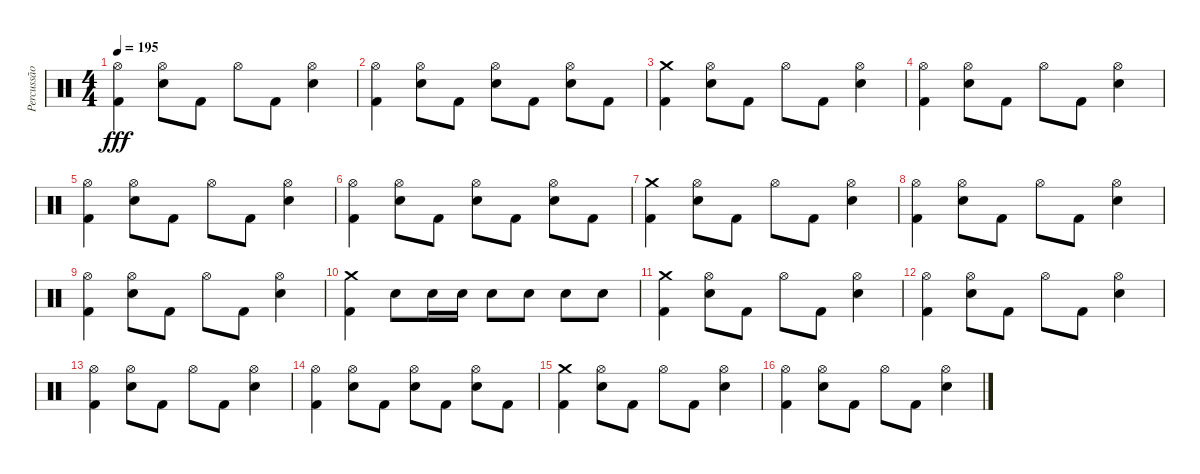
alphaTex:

\track ("Percussão" "Percussão") {instrument percussion}
\staff {score}
\articulation defaults
\ts (4 4)
\tempo 195
\clef neutral
\ks c
("Hi-Hat (open)" "Kick (hit) 2").4{dy fff} ("Hi-Hat (open)" "Electric Snare (hit)").8 "Kick (hit) 2".8 "Hi-Hat (open)".8 "Kick (hit) 2".8 ("Hi-Hat (open)" "Electric Snare (hit)").4 |
("Hi-Hat (open)" "Kick (hit) 2").4 ("Hi-Hat (open)" "Electric Snare (hit)").8 "Kick (hit) 2".8 ("Hi-Hat (open)" "Electric Snare (hit)").8 "Kick (hit) 2".8 ("Hi-Hat (open)" "Electric Snare (hit)").8 "Kick (hit) 2".8 |
("Crash medium (hit)" "Kick (hit) 2").4 ("Hi-Hat (open)" "Electric Snare (hit)").8 "Kick (hit) 2".8 "Hi-Hat (open)".8 "Kick (hit) 2".8 ("Hi-Hat (open)" "Electric Snare (hit)").4 |
("Hi-Hat (open)" "Kick (hit) 2").4 ("Hi-Hat (open)" "Electric Snare (hit)").8 "Kick (hit) 2".8 "Hi-Hat (open)".8 "Kick (hit) 2".8 ("Hi-Hat (open)" "Electric Snare (hit)").4 |
("Hi-Hat (open)" "Kick (hit) 2").4 ("Hi-Hat (open)" "Electric Snare (hit)").8 "Kick (hit) 2".8 "Hi-Hat (open)".8 "Kick (hit) 2".8 ("Hi-Hat (open)" "Electric Snare (hit)").4 |
("Hi-Hat (open)" "Kick (hit) 2").4 ("Hi-Hat (open)" "Electric Snare (hit)").8 "Kick (hit) 2".8 ("Hi-Hat (open)" "Electric Snare (hit)").8 "Kick (hit) 2".8 ("Hi-Hat (open)" "Electric Snare (hit)").8 "Kick (hit) 2".8 |
("Crash medium (hit)" "Kick (hit) 2").4 ("Hi-Hat (open)" "Electric Snare (hit)").8 "Kick (hit) 2".8 "Hi-Hat (open)".8 "Kick (hit) 2".8 ("Hi-Hat (open)" "Electric Snare (hit)").4 |
("Hi-Hat (open)" "Kick (hit) 2").4 ("Hi-Hat (open)" "Electric Snare (hit)").8 "Kick (hit) 2".8 "Hi-Hat (open)".8 "Kick (hit) 2".8 ("Hi-Hat (open)" "Electric Snare (hit)").4 |
("Hi-Hat (open)" "Kick (hit) 2").4 ("Hi-Hat (open)" "Electric Snare (hit)").8 "Kick (hit) 2".8 "Hi-Hat (open)".8 "Kick (hit) 2".8 ("Hi-Hat (open)" "Electric Snare (hit)").4 |
("Crash medium (hit)" "Kick (hit) 2").4 "Electric Snare (hit)".8 "Electric Snare (hit)".16 "Electric Snare (hit)".16 "Electric Snare (hit)".8 "Electric Snare (hit)".8 "Electric Snare (hit)".8 "Electric Snare (hit)".8 |
("Crash medium (hit)" "Kick (hit) 2").4 ("Hi-Hat (open)" "Electric Snare (hit)").8 "Kick (hit) 2".8 "Hi-Hat (open)".8 "Kick (hit) 2".8 ("Hi-Hat (open)" "Electric Snare (hit)").4 |
("Hi-Hat (open)" "Kick (hit) 2").4 ("Hi-Hat (open)" "Electric Snare (hit)").8 "Kick (hit) 2".8 "Hi-Hat (open)".8 "Kick (hit) 2".8 ("Hi-Hat (open)" "Electric Snare (hit)").4 |
("Hi-Hat (open)" "Kick (hit) 2").4 ("Hi-Hat (open)" "Electric Snare (hit)").8 "Kick (hit) 2".8 "Hi-Hat (open)".8 "Kick (hit) 2".8 ("Hi-Hat (open)" "Electric Snare (hit)").4 |
("Hi-Hat (open)" "Kick (hit) 2").4 ("Hi-Hat (open)" "Electric Snare (hit)").8 "Kick (hit) 2".8 ("Hi-Hat (open)" "Electric Snare (hit)").8 "Kick (hit) 2".8 ("Hi-Hat (open)" "Electric Snare (hit)").8 "Kick (hit) 2".8 |
("Crash medium (hit)" "Kick (hit) 2").4 ("Hi-Hat (open)" "Electric Snare (hit)").8 "Kick (hit) 2".8 "Hi-Hat (open)".8 "Kick (hit) 2".8 ("Hi-Hat (open)" "Electric Snare (hit)").4 |
("Hi-Hat (open)" "Kick (hit) 2").4 ("Hi-Hat (open)" "Electric Snare (hit)").8 "Kick (hit) 2".8 "Hi-Hat (open)".8 "Kick (hit) 2".8 ("Hi-Hat (open)" "Electric Snare (hit)").4
